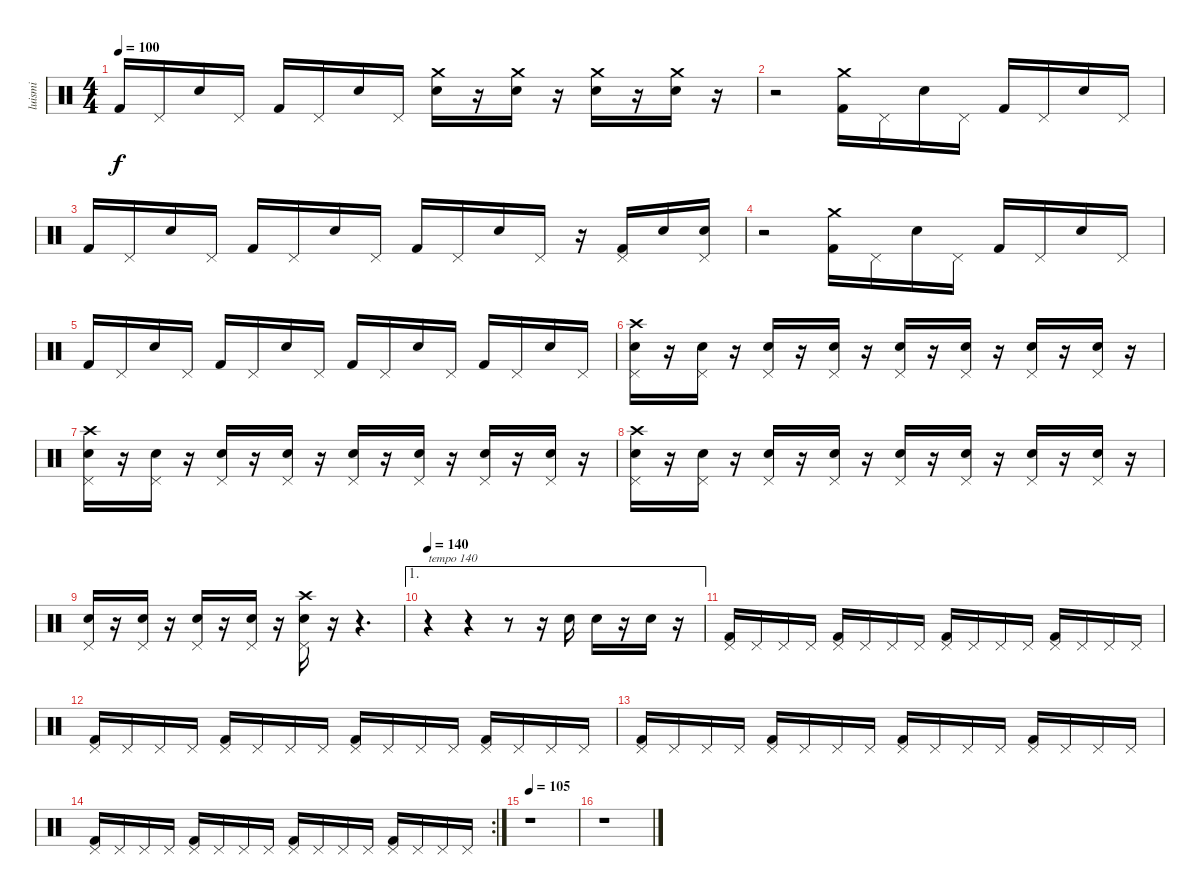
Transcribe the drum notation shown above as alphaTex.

\track ("luismi" "luismi") {instrument percussion}
\staff {score}
\articulation defaults
\ts (4 4)
\tempo 100
\clef neutral
\ks c "Kick (hit) 2".16{dy f} "Pedal Hi-Hat (hit)".16 "Electric Snare (hit)".16 "Pedal Hi-Hat (hit)".16 "Kick (hit) 2".16 "Pedal Hi-Hat (hit)".16 "Electric Snare (hit)".16 "Pedal Hi-Hat (hit)".16
("Crash medium (hit)" "Electric Snare (hit)").16 r.16 ("Crash medium (hit)" "Electric Snare (hit)").16 r.16 ("Crash medium (hit)" "Electric Snare (hit)").16 r.16 ("Crash medium (hit)" "Electric Snare (hit)").16 r.16 |
r.2 ("Crash medium (hit)" "Kick (hit) 2").16 "Pedal Hi-Hat (hit)".16 "Electric Snare (hit)".16 "Pedal Hi-Hat (hit)".16 "Kick (hit) 2".16 "Pedal Hi-Hat (hit)".16 "Electric Snare (hit)".16 "Pedal Hi-Hat (hit)".16 |
"Kick (hit) 2".16 "Pedal Hi-Hat (hit)".16 "Electric Snare (hit)".16 "Pedal Hi-Hat (hit)".16 "Kick (hit) 2".16 "Pedal Hi-Hat (hit)".16 "Electric Snare (hit)".16 "Pedal Hi-Hat (hit)".16 "Kick (hit) 2".16 "Pedal Hi-Hat (hit)".16 "Electric Snare (hit)".16 "Pedal Hi-Hat (hit)".16 r.16 ("Kick (hit) 2" "Pedal Hi-Hat (hit)").16 "Electric Snare (hit)".16 ("Electric Snare (hit)" "Pedal Hi-Hat (hit)").16 |
r.2 ("Crash medium (hit)" "Kick (hit) 2").16 "Pedal Hi-Hat (hit)".16 "Electric Snare (hit)".16 "Pedal Hi-Hat (hit)".16 "Kick (hit) 2".16 "Pedal Hi-Hat (hit)".16 "Electric Snare (hit)".16 "Pedal Hi-Hat (hit)".16 |
"Kick (hit) 2".16 "Pedal Hi-Hat (hit)".16 "Electric Snare (hit)".16 "Pedal Hi-Hat (hit)".16 "Kick (hit) 2".16 "Pedal Hi-Hat (hit)".16 "Electric Snare (hit)".16 "Pedal Hi-Hat (hit)".16 "Kick (hit) 2".16 "Pedal Hi-Hat (hit)".16 "Electric Snare (hit)".16 "Pedal Hi-Hat (hit)".16 "Kick (hit) 2".16 "Pedal Hi-Hat (hit)".16 "Electric Snare (hit)".16 "Pedal Hi-Hat (hit)".16 |
("Crash high (hit)" "Electric Snare (hit)" "Pedal Hi-Hat (hit)").16 r.16 ("Electric Snare (hit)" "Pedal Hi-Hat (hit)").16 r.16 ("Electric Snare (hit)" "Pedal Hi-Hat (hit)").16 r.16 ("Electric Snare (hit)" "Pedal Hi-Hat (hit)").16 r.16 ("Electric Snare (hit)" "Pedal Hi-Hat (hit)").16 r.16 ("Electric Snare (hit)" "Pedal Hi-Hat (hit)").16 r.16 ("Electric Snare (hit)" "Pedal Hi-Hat (hit)").16 r.16 ("Electric Snare (hit)" "Pedal Hi-Hat (hit)").16 r.16 |
("Crash high (hit)" "Electric Snare (hit)" "Pedal Hi-Hat (hit)").16 r.16 ("Electric Snare (hit)" "Pedal Hi-Hat (hit)").16 r.16 ("Electric Snare (hit)" "Pedal Hi-Hat (hit)").16 r.16 ("Electric Snare (hit)" "Pedal Hi-Hat (hit)").16 r.16 ("Electric Snare (hit)" "Pedal Hi-Hat (hit)").16 r.16 ("Electric Snare (hit)" "Pedal Hi-Hat (hit)").16 r.16 ("Electric Snare (hit)" "Pedal Hi-Hat (hit)").16 r.16 ("Electric Snare (hit)" "Pedal Hi-Hat (hit)").16 r.16 |
("Crash high (hit)" "Electric Snare (hit)" "Pedal Hi-Hat (hit)").16 r.16 ("Electric Snare (hit)" "Pedal Hi-Hat (hit)").16 r.16 ("Electric Snare (hit)" "Pedal Hi-Hat (hit)").16 r.16 ("Electric Snare (hit)" "Pedal Hi-Hat (hit)").16 r.16 ("Electric Snare (hit)" "Pedal Hi-Hat (hit)").16 r.16 ("Electric Snare (hit)" "Pedal Hi-Hat (hit)").16 r.16 ("Electric Snare (hit)" "Pedal Hi-Hat (hit)").16 r.16 ("Electric Snare (hit)" "Pedal Hi-Hat (hit)").16 r.16 |
("Electric Snare (hit)" "Pedal Hi-Hat (hit)").16 r.16 ("Electric Snare (hit)" "Pedal Hi-Hat (hit)").16 r.16 ("Electric Snare (hit)" "Pedal Hi-Hat (hit)").16 r.16 ("Electric Snare (hit)" "Pedal Hi-Hat (hit)").16 r.16 ("Crash high (hit)" "Electric Snare (hit)" "Pedal Hi-Hat (hit)").16 r.16 r.4{d} |
\ae 1
\tempo 140
r.4{txt "tempo 140"} r.4 r.8 r.16 "Electric Snare (hit)".16 "Electric Snare (hit)".16 r.16 "Electric Snare (hit)".16 r.16 |
("Kick (hit) 2" "Pedal Hi-Hat (hit)").16 "Pedal Hi-Hat (hit)".16 "Pedal Hi-Hat (hit)".16 "Pedal Hi-Hat (hit)".16 ("Kick (hit) 2" "Pedal Hi-Hat (hit)").16 "Pedal Hi-Hat (hit)".16 "Pedal Hi-Hat (hit)".16 "Pedal Hi-Hat (hit)".16 ("Kick (hit) 2" "Pedal Hi-Hat (hit)").16 "Pedal Hi-Hat (hit)".16 "Pedal Hi-Hat (hit)".16 "Pedal Hi-Hat (hit)".16 ("Kick (hit) 2" "Pedal Hi-Hat (hit)").16 "Pedal Hi-Hat (hit)".16 "Pedal Hi-Hat (hit)".16 "Pedal Hi-Hat (hit)".16 |
("Kick (hit) 2" "Pedal Hi-Hat (hit)").16 "Pedal Hi-Hat (hit)".16 "Pedal Hi-Hat (hit)".16 "Pedal Hi-Hat (hit)".16 ("Kick (hit) 2" "Pedal Hi-Hat (hit)").16 "Pedal Hi-Hat (hit)".16 "Pedal Hi-Hat (hit)".16 "Pedal Hi-Hat (hit)".16 ("Kick (hit) 2" "Pedal Hi-Hat (hit)").16 "Pedal Hi-Hat (hit)".16 "Pedal Hi-Hat (hit)".16 "Pedal Hi-Hat (hit)".16 ("Kick (hit) 2" "Pedal Hi-Hat (hit)").16 "Pedal Hi-Hat (hit)".16 "Pedal Hi-Hat (hit)".16 "Pedal Hi-Hat (hit)".16 |
("Kick (hit) 2" "Pedal Hi-Hat (hit)").16 "Pedal Hi-Hat (hit)".16 "Pedal Hi-Hat (hit)".16 "Pedal Hi-Hat (hit)".16 ("Kick (hit) 2" "Pedal Hi-Hat (hit)").16 "Pedal Hi-Hat (hit)".16 "Pedal Hi-Hat (hit)".16 "Pedal Hi-Hat (hit)".16 ("Kick (hit) 2" "Pedal Hi-Hat (hit)").16 "Pedal Hi-Hat (hit)".16 "Pedal Hi-Hat (hit)".16 "Pedal Hi-Hat (hit)".16 ("Kick (hit) 2" "Pedal Hi-Hat (hit)").16 "Pedal Hi-Hat (hit)".16 "Pedal Hi-Hat (hit)".16 "Pedal Hi-Hat (hit)".16 |
\rc 2
("Kick (hit) 2" "Pedal Hi-Hat (hit)").16 "Pedal Hi-Hat (hit)".16 "Pedal Hi-Hat (hit)".16 "Pedal Hi-Hat (hit)".16 ("Kick (hit) 2" "Pedal Hi-Hat (hit)").16 "Pedal Hi-Hat (hit)".16 "Pedal Hi-Hat (hit)".16 "Pedal Hi-Hat (hit)".16 ("Kick (hit) 2" "Pedal Hi-Hat (hit)").16 "Pedal Hi-Hat (hit)".16 "Pedal Hi-Hat (hit)".16 "Pedal Hi-Hat (hit)".16 ("Kick (hit) 2" "Pedal Hi-Hat (hit)").16 "Pedal Hi-Hat (hit)".16 "Pedal Hi-Hat (hit)".16 "Pedal Hi-Hat (hit)".16 |
\tempo 105
r.1 |
r.1
